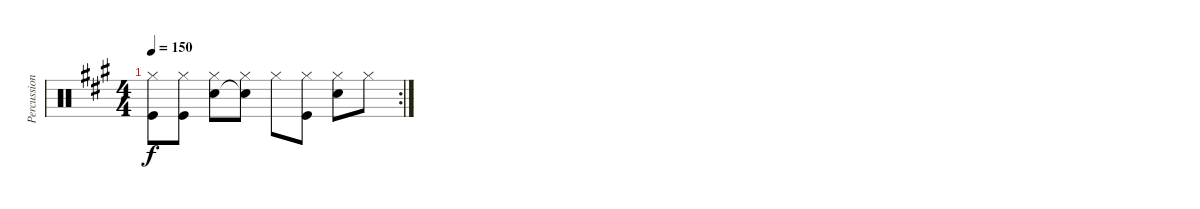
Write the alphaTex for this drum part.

\track ("Percussion" "Percussion") {instrument percussion}
\staff {score}
\articulation defaults
\rc 2
\ts (4 4)
\tempo 150
\clef neutral
\ks a
("Hi-Hat (closed)" "Kick (hit)").8{dy f} ("Hi-Hat (closed)" "Kick (hit)").8 ("Hi-Hat (closed)" "Electric Snare (hit)").8 ("Hi-Hat (closed)" "Snare (hit)"{t}).8 "Hi-Hat (closed)".8 ("Hi-Hat (closed)" "Kick (hit)").8 ("Hi-Hat (closed)" "Electric Snare (hit)").8 "Hi-Hat (closed)".8
